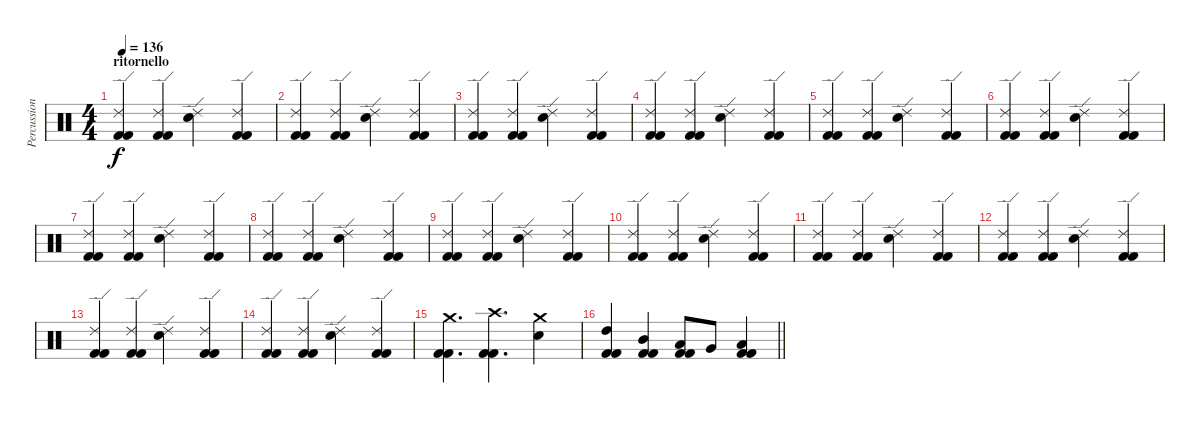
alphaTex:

\track ("Percussioni" "Percussion") {instrument percussion}
\staff {score}
\articulation defaults
\ts (4 4)
\section ("" "ritornello")
\tempo 136
\clef neutral
\ks c
("Ride (edge) 2" "Kick (hit) 2" "Kick (hit) 2").4{dy f} ("Ride (edge) 2" "Kick (hit) 2" "Kick (hit) 2").4 ("Ride (edge) 2" "Electric Snare (hit)").4 ("Ride (edge) 2" "Kick (hit) 2" "Kick (hit) 2").4 |
("Ride (edge) 2" "Kick (hit) 2" "Kick (hit) 2").4 ("Ride (edge) 2" "Kick (hit) 2" "Kick (hit) 2").4 ("Ride (edge) 2" "Electric Snare (hit)").4 ("Ride (edge) 2" "Kick (hit) 2" "Kick (hit) 2").4 |
("Ride (edge) 2" "Kick (hit) 2" "Kick (hit) 2").4 ("Ride (edge) 2" "Kick (hit) 2" "Kick (hit) 2").4 ("Ride (edge) 2" "Electric Snare (hit)").4 ("Ride (edge) 2" "Kick (hit) 2" "Kick (hit) 2").4 |
("Ride (edge) 2" "Kick (hit) 2" "Kick (hit) 2").4 ("Ride (edge) 2" "Kick (hit) 2" "Kick (hit) 2").4 ("Ride (edge) 2" "Electric Snare (hit)").4 ("Ride (edge) 2" "Kick (hit) 2" "Kick (hit) 2").4 |
("Ride (edge) 2" "Kick (hit) 2" "Kick (hit) 2").4 ("Ride (edge) 2" "Kick (hit) 2" "Kick (hit) 2").4 ("Ride (edge) 2" "Electric Snare (hit)").4 ("Ride (edge) 2" "Kick (hit) 2" "Kick (hit) 2").4 |
("Ride (edge) 2" "Kick (hit) 2" "Kick (hit) 2").4 ("Ride (edge) 2" "Kick (hit) 2" "Kick (hit) 2").4 ("Ride (edge) 2" "Electric Snare (hit)").4 ("Ride (edge) 2" "Kick (hit) 2" "Kick (hit) 2").4 |
("Ride (edge) 2" "Kick (hit) 2" "Kick (hit) 2").4 ("Ride (edge) 2" "Kick (hit) 2" "Kick (hit) 2").4 ("Ride (edge) 2" "Electric Snare (hit)").4 ("Ride (edge) 2" "Kick (hit) 2" "Kick (hit) 2").4 |
("Ride (edge) 2" "Kick (hit) 2" "Kick (hit) 2").4 ("Ride (edge) 2" "Kick (hit) 2" "Kick (hit) 2").4 ("Ride (edge) 2" "Electric Snare (hit)").4 ("Ride (edge) 2" "Kick (hit) 2" "Kick (hit) 2").4 |
("Ride (edge) 2" "Kick (hit) 2" "Kick (hit) 2").4 ("Ride (edge) 2" "Kick (hit) 2" "Kick (hit) 2").4 ("Ride (edge) 2" "Electric Snare (hit)").4 ("Ride (edge) 2" "Kick (hit) 2" "Kick (hit) 2").4 |
("Ride (edge) 2" "Kick (hit) 2" "Kick (hit) 2").4 ("Ride (edge) 2" "Kick (hit) 2" "Kick (hit) 2").4 ("Ride (edge) 2" "Electric Snare (hit)").4 ("Ride (edge) 2" "Kick (hit) 2" "Kick (hit) 2").4 |
("Ride (edge) 2" "Kick (hit) 2" "Kick (hit) 2").4 ("Ride (edge) 2" "Kick (hit) 2" "Kick (hit) 2").4 ("Ride (edge) 2" "Electric Snare (hit)").4 ("Ride (edge) 2" "Kick (hit) 2" "Kick (hit) 2").4 |
("Ride (edge) 2" "Kick (hit) 2" "Kick (hit) 2").4 ("Ride (edge) 2" "Kick (hit) 2" "Kick (hit) 2").4 ("Ride (edge) 2" "Electric Snare (hit)").4 ("Ride (edge) 2" "Kick (hit) 2" "Kick (hit) 2").4 |
("Ride (edge) 2" "Kick (hit) 2" "Kick (hit) 2").4 ("Ride (edge) 2" "Kick (hit) 2" "Kick (hit) 2").4 ("Ride (edge) 2" "Electric Snare (hit)").4 ("Ride (edge) 2" "Kick (hit) 2" "Kick (hit) 2").4 |
("Ride (edge) 2" "Kick (hit) 2" "Kick (hit) 2").4 ("Ride (edge) 2" "Kick (hit) 2" "Kick (hit) 2").4 ("Ride (edge) 2" "Electric Snare (hit)").4 ("Ride (edge) 2" "Kick (hit) 2" "Kick (hit) 2").4 |
("Crash medium (hit)" "Kick (hit) 2" "Kick (hit) 2").4{d} ("Crash high (hit)" "Kick (hit) 2" "Kick (hit) 2").4{d} ("Crash medium (hit)" "Electric Snare (hit)").4 |
\barLineRight lightlight
("High Tom (hit)" "Kick (hit) 2" "Kick (hit) 2").4 ("Mid Tom (hit)" "Kick (hit) 2" "Kick (hit) 2").4 ("Low Tom (hit)" "Kick (hit) 2" "Kick (hit) 2").8 "Very Low Tom (hit)".8 ("Low Floor Tom (hit)" "Kick (hit) 2" "Kick (hit) 2").4
